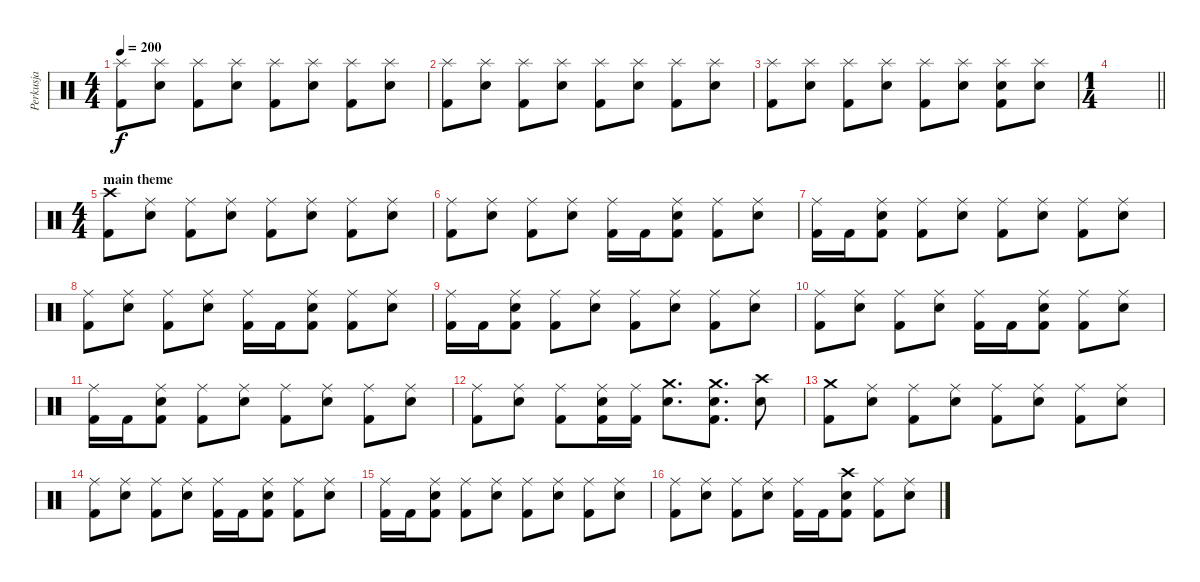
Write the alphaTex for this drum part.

\track ("Perkusja" "Perkusja") {instrument percussion}
\staff {score}
\articulation defaults
\ts (4 4)
\tempo 200
\clef neutral
\ks c
("Splash (hit)" "Kick (hit) 2").8{dy f} ("Splash (hit)" "Electric Snare (hit)").8 ("Splash (hit)" "Kick (hit) 2").8 ("Splash (hit)" "Electric Snare (hit)").8 ("Splash (hit)" "Kick (hit) 2").8 ("Splash (hit)" "Electric Snare (hit)").8 ("Splash (hit)" "Kick (hit) 2").8 ("Splash (hit)" "Electric Snare (hit)").8 |
("Splash (hit)" "Kick (hit) 2").8 ("Splash (hit)" "Electric Snare (hit)").8 ("Splash (hit)" "Kick (hit) 2").8 ("Splash (hit)" "Electric Snare (hit)").8 ("Splash (hit)" "Kick (hit) 2").8 ("Splash (hit)" "Electric Snare (hit)").8 ("Splash (hit)" "Kick (hit) 2").8 ("Splash (hit)" "Electric Snare (hit)").8 |
("Splash (hit)" "Kick (hit) 2").8 ("Splash (hit)" "Electric Snare (hit)").8 ("Splash (hit)" "Kick (hit) 2").8 ("Splash (hit)" "Electric Snare (hit)").8 ("Splash (hit)" "Kick (hit) 2").8 ("Splash (hit)" "Electric Snare (hit)").8 ("Splash (hit)" "Electric Snare (hit)" "Kick (hit) 2").8 ("Splash (hit)" "Electric Snare (hit)").8 |
\ts (1 4)
\barLineRight lightlight
|
\ts (4 4)
\section ("" "main theme")
("Crash high (hit)" "Kick (hit) 2").8 ("Ride (middle)" "Electric Snare (hit)").8 ("Ride (middle)" "Kick (hit) 2").8 ("Ride (middle)" "Electric Snare (hit)").8 ("Ride (middle)" "Kick (hit) 2").8 ("Ride (middle)" "Electric Snare (hit)").8 ("Ride (middle)" "Kick (hit) 2").8 ("Ride (middle)" "Electric Snare (hit)").8 |
("Ride (middle)" "Kick (hit) 2").8 ("Ride (middle)" "Electric Snare (hit)").8 ("Ride (middle)" "Kick (hit) 2").8 ("Ride (middle)" "Electric Snare (hit)").8 ("Ride (middle)" "Kick (hit) 2").16 "Kick (hit) 2".16 ("Ride (middle)" "Electric Snare (hit)" "Kick (hit) 2").8 ("Ride (middle)" "Kick (hit) 2").8 ("Ride (middle)" "Electric Snare (hit)").8 |
("Ride (middle)" "Kick (hit) 2").16 "Kick (hit) 2".16 ("Ride (middle)" "Electric Snare (hit)" "Kick (hit) 2").8 ("Ride (middle)" "Kick (hit) 2").8 ("Ride (middle)" "Electric Snare (hit)").8 ("Ride (middle)" "Kick (hit) 2").8 ("Ride (middle)" "Electric Snare (hit)").8 ("Ride (middle)" "Kick (hit) 2").8 ("Ride (middle)" "Electric Snare (hit)").8 |
("Ride (middle)" "Kick (hit) 2").8 ("Ride (middle)" "Electric Snare (hit)").8 ("Ride (middle)" "Kick (hit) 2").8 ("Ride (middle)" "Electric Snare (hit)").8 ("Ride (middle)" "Kick (hit) 2").16 "Kick (hit) 2".16 ("Ride (middle)" "Electric Snare (hit)" "Kick (hit) 2").8 ("Ride (middle)" "Kick (hit) 2").8 ("Ride (middle)" "Electric Snare (hit)").8 |
("Ride (middle)" "Kick (hit) 2").16 "Kick (hit) 2".16 ("Ride (middle)" "Electric Snare (hit)" "Kick (hit) 2").8 ("Ride (middle)" "Kick (hit) 2").8 ("Ride (middle)" "Electric Snare (hit)").8 ("Ride (middle)" "Kick (hit) 2").8 ("Ride (middle)" "Electric Snare (hit)").8 ("Ride (middle)" "Kick (hit) 2").8 ("Ride (middle)" "Electric Snare (hit)").8 |
("Ride (middle)" "Kick (hit) 2").8 ("Ride (middle)" "Electric Snare (hit)").8 ("Ride (middle)" "Kick (hit) 2").8 ("Ride (middle)" "Electric Snare (hit)").8 ("Ride (middle)" "Kick (hit) 2").16 "Kick (hit) 2".16 ("Ride (middle)" "Electric Snare (hit)" "Kick (hit) 2").8 ("Ride (middle)" "Kick (hit) 2").8 ("Ride (middle)" "Electric Snare (hit)").8 |
("Ride (middle)" "Kick (hit) 2").16 "Kick (hit) 2".16 ("Ride (middle)" "Electric Snare (hit)" "Kick (hit) 2").8 ("Ride (middle)" "Kick (hit) 2").8 ("Ride (middle)" "Electric Snare (hit)").8 ("Ride (middle)" "Kick (hit) 2").8 ("Ride (middle)" "Electric Snare (hit)").8 ("Ride (middle)" "Kick (hit) 2").8 ("Ride (middle)" "Electric Snare (hit)").8 |
("Ride (middle)" "Kick (hit) 2").8 ("Ride (middle)" "Electric Snare (hit)").8 ("Ride (middle)" "Kick (hit) 2").8 ("Ride (middle)" "Electric Snare (hit)" "Kick (hit) 2").16 ("Ride (middle)" "Kick (hit) 2").16 ("Crash medium (hit)" "Electric Snare (hit)").8{d} ("Crash medium (hit)" "Electric Snare (hit)" "Kick (hit) 2").8{d} ("Crash high (hit)" "Electric Snare (hit)").8 |
("Crash medium (hit)" "Kick (hit) 2").8 ("Ride (middle)" "Electric Snare (hit)").8 ("Ride (middle)" "Kick (hit) 2").8 ("Ride (middle)" "Electric Snare (hit)").8 ("Ride (middle)" "Kick (hit) 2").8 ("Ride (middle)" "Electric Snare (hit)").8 ("Ride (middle)" "Kick (hit) 2").8 ("Ride (middle)" "Electric Snare (hit)").8 |
("Ride (middle)" "Kick (hit) 2").8 ("Ride (middle)" "Electric Snare (hit)").8 ("Ride (middle)" "Kick (hit) 2").8 ("Ride (middle)" "Electric Snare (hit)").8 ("Ride (middle)" "Kick (hit) 2").16 "Kick (hit) 2".16 ("Ride (middle)" "Electric Snare (hit)" "Kick (hit) 2").8 ("Ride (middle)" "Kick (hit) 2").8 ("Ride (middle)" "Electric Snare (hit)").8 |
("Ride (middle)" "Kick (hit) 2").16 "Kick (hit) 2".16 ("Ride (middle)" "Electric Snare (hit)" "Kick (hit) 2").8 ("Ride (middle)" "Kick (hit) 2").8 ("Ride (middle)" "Electric Snare (hit)").8 ("Ride (middle)" "Kick (hit) 2").8 ("Ride (middle)" "Electric Snare (hit)").8 ("Ride (middle)" "Kick (hit) 2").8 ("Ride (middle)" "Electric Snare (hit)").8 |
("Ride (middle)" "Kick (hit) 2").8 ("Ride (middle)" "Electric Snare (hit)").8 ("Ride (middle)" "Kick (hit) 2").8 ("Ride (middle)" "Electric Snare (hit)").8 ("Ride (middle)" "Kick (hit) 2").16 "Kick (hit) 2".16 ("Crash high (hit)" "Electric Snare (hit)" "Kick (hit) 2").8 ("Ride (middle)" "Kick (hit) 2").8 ("Ride (middle)" "Electric Snare (hit)").8
